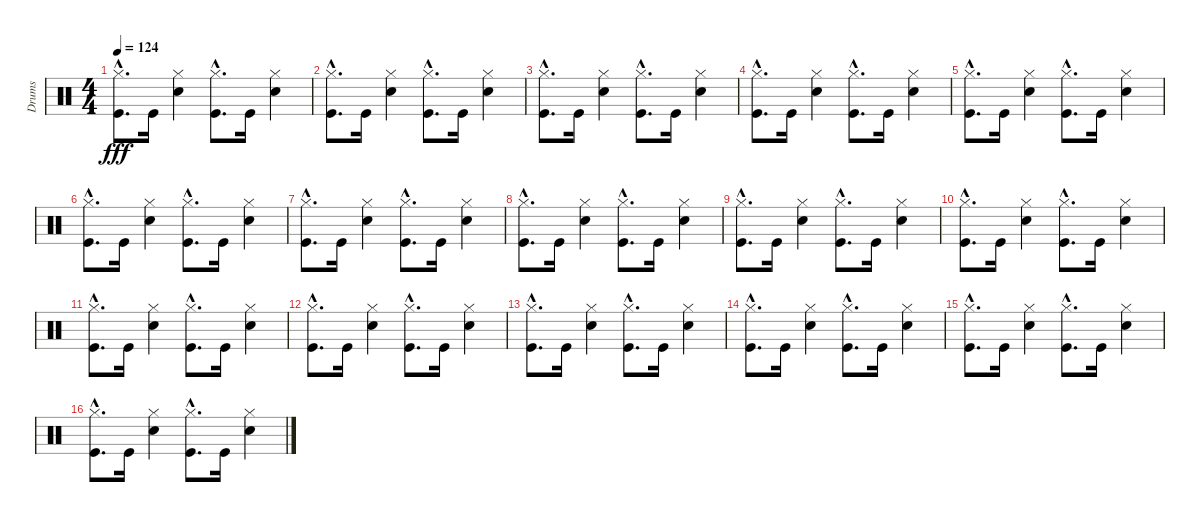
\track ("Drums" "Drums") {instrument percussion}
\staff {score}
\articulation defaults
\ts (4 4)
\tempo 124
\clef neutral
\ks c
("Hi-Hat (closed)"{hac} "Kick (hit)"{hac}).8{d dy fff} "Kick (hit)".16 ("Hi-Hat (closed)" "Snare (hit) 2").4 ("Hi-Hat (closed)"{hac} "Kick (hit)"{hac}).8{d} "Kick (hit)".16 ("Hi-Hat (closed)" "Snare (hit) 2").4 |
("Hi-Hat (closed)"{hac} "Kick (hit)"{hac}).8{d} "Kick (hit)".16 ("Hi-Hat (closed)" "Snare (hit) 2").4 ("Hi-Hat (closed)"{hac} "Kick (hit)"{hac}).8{d} "Kick (hit)".16 ("Hi-Hat (closed)" "Snare (hit) 2").4 |
("Hi-Hat (closed)"{hac} "Kick (hit)"{hac}).8{d} "Kick (hit)".16 ("Hi-Hat (closed)" "Snare (hit) 2").4 ("Hi-Hat (closed)"{hac} "Kick (hit)"{hac}).8{d} "Kick (hit)".16 ("Hi-Hat (closed)" "Snare (hit) 2").4 |
("Hi-Hat (closed)"{hac} "Kick (hit)"{hac}).8{d} "Kick (hit)".16 ("Hi-Hat (closed)" "Snare (hit) 2").4 ("Hi-Hat (closed)"{hac} "Kick (hit)"{hac}).8{d} "Kick (hit)".16 ("Hi-Hat (closed)" "Snare (hit) 2").4 |
("Hi-Hat (closed)"{hac} "Kick (hit)"{hac}).8{d} "Kick (hit)".16 ("Hi-Hat (closed)" "Snare (hit) 2").4 ("Hi-Hat (closed)"{hac} "Kick (hit)"{hac}).8{d} "Kick (hit)".16 ("Hi-Hat (closed)" "Snare (hit) 2").4 |
("Hi-Hat (closed)"{hac} "Kick (hit)"{hac}).8{d} "Kick (hit)".16 ("Hi-Hat (closed)" "Snare (hit) 2").4 ("Hi-Hat (closed)"{hac} "Kick (hit)"{hac}).8{d} "Kick (hit)".16 ("Hi-Hat (closed)" "Snare (hit) 2").4 |
("Hi-Hat (closed)"{hac} "Kick (hit)"{hac}).8{d} "Kick (hit)".16 ("Hi-Hat (closed)" "Snare (hit) 2").4 ("Hi-Hat (closed)"{hac} "Kick (hit)"{hac}).8{d} "Kick (hit)".16 ("Hi-Hat (closed)" "Snare (hit) 2").4 |
("Hi-Hat (closed)"{hac} "Kick (hit)"{hac}).8{d} "Kick (hit)".16 ("Hi-Hat (closed)" "Snare (hit) 2").4 ("Hi-Hat (closed)"{hac} "Kick (hit)"{hac}).8{d} "Kick (hit)".16 ("Hi-Hat (closed)" "Snare (hit) 2").4 |
("Hi-Hat (closed)"{hac} "Kick (hit)"{hac}).8{d} "Kick (hit)".16 ("Hi-Hat (closed)" "Snare (hit) 2").4 ("Hi-Hat (closed)"{hac} "Kick (hit)"{hac}).8{d} "Kick (hit)".16 ("Hi-Hat (closed)" "Snare (hit) 2").4 |
("Hi-Hat (closed)"{hac} "Kick (hit)"{hac}).8{d} "Kick (hit)".16 ("Hi-Hat (closed)" "Snare (hit) 2").4 ("Hi-Hat (closed)"{hac} "Kick (hit)"{hac}).8{d} "Kick (hit)".16 ("Hi-Hat (closed)" "Snare (hit) 2").4 |
("Hi-Hat (closed)"{hac} "Kick (hit)"{hac}).8{d} "Kick (hit)".16 ("Hi-Hat (closed)" "Snare (hit) 2").4 ("Hi-Hat (closed)"{hac} "Kick (hit)"{hac}).8{d} "Kick (hit)".16 ("Hi-Hat (closed)" "Snare (hit) 2").4 |
("Hi-Hat (closed)"{hac} "Kick (hit)"{hac}).8{d} "Kick (hit)".16 ("Hi-Hat (closed)" "Snare (hit) 2").4 ("Hi-Hat (closed)"{hac} "Kick (hit)"{hac}).8{d} "Kick (hit)".16 ("Hi-Hat (closed)" "Snare (hit) 2").4 |
("Hi-Hat (closed)"{hac} "Kick (hit)"{hac}).8{d} "Kick (hit)".16 ("Hi-Hat (closed)" "Snare (hit) 2").4 ("Hi-Hat (closed)"{hac} "Kick (hit)"{hac}).8{d} "Kick (hit)".16 ("Hi-Hat (closed)" "Snare (hit) 2").4 |
("Hi-Hat (closed)"{hac} "Kick (hit)"{hac}).8{d} "Kick (hit)".16 ("Hi-Hat (closed)" "Snare (hit) 2").4 ("Hi-Hat (closed)"{hac} "Kick (hit)"{hac}).8{d} "Kick (hit)".16 ("Hi-Hat (closed)" "Snare (hit) 2").4 |
("Hi-Hat (closed)"{hac} "Kick (hit)"{hac}).8{d} "Kick (hit)".16 ("Hi-Hat (closed)" "Snare (hit) 2").4 ("Hi-Hat (closed)"{hac} "Kick (hit)"{hac}).8{d} "Kick (hit)".16 ("Hi-Hat (closed)" "Snare (hit) 2").4 |
("Hi-Hat (closed)"{hac} "Kick (hit)"{hac}).8{d} "Kick (hit)".16 ("Hi-Hat (closed)" "Snare (hit) 2").4 ("Hi-Hat (closed)"{hac} "Kick (hit)"{hac}).8{d} "Kick (hit)".16 ("Hi-Hat (closed)" "Snare (hit) 2").4
